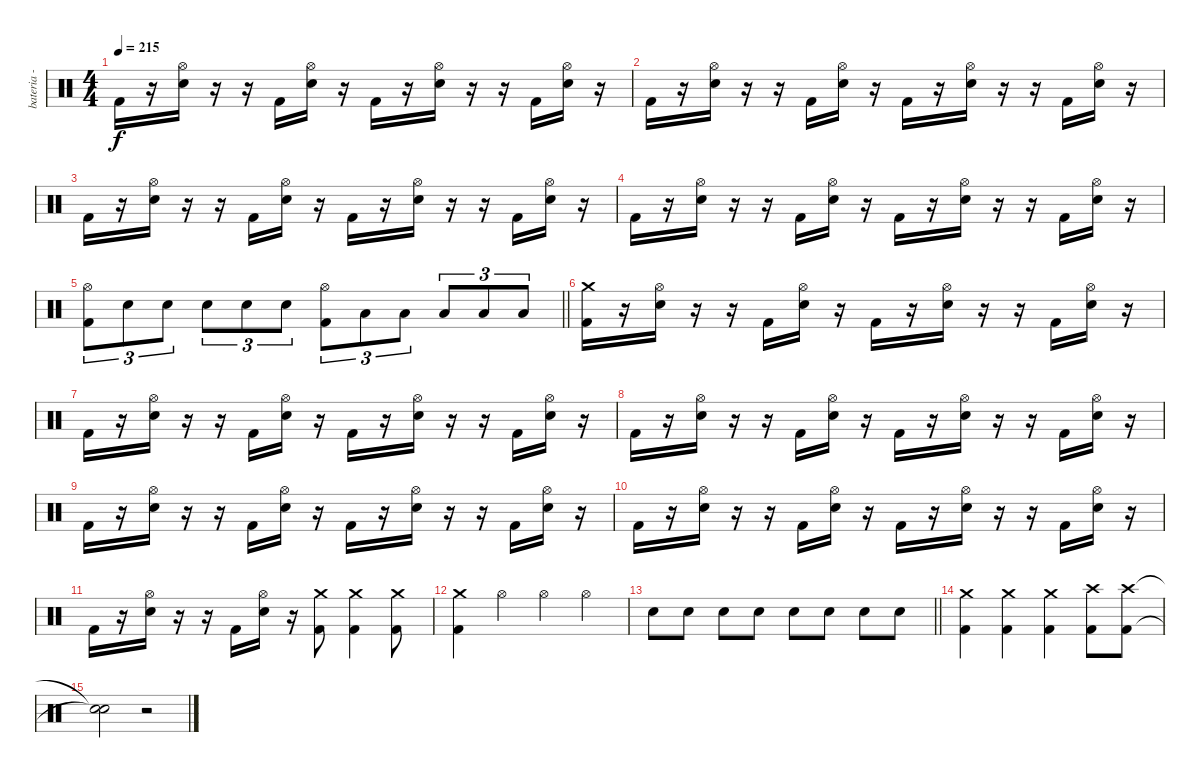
\track ("bateria - drums" "bateria - ") {instrument percussion}
\staff {score}
\articulation defaults
\ts (4 4)
\tempo 215
\clef neutral
\ks c "Kick (hit) 2".16{dy f}
r.16 ("Hi-Hat (open)" "Electric Snare (hit)").16 r.16 r.16 "Kick (hit) 2".16 ("Hi-Hat (open)" "Electric Snare (hit)").16 r.16 "Kick (hit) 2".16 r.16 ("Hi-Hat (open)" "Electric Snare (hit)").16 r.16 r.16 "Kick (hit) 2".16 ("Hi-Hat (open)" "Electric Snare (hit)").16 r.16 |
"Kick (hit) 2".16 r.16 ("Hi-Hat (open)" "Electric Snare (hit)").16 r.16 r.16 "Kick (hit) 2".16 ("Hi-Hat (open)" "Electric Snare (hit)").16 r.16 "Kick (hit) 2".16 r.16 ("Hi-Hat (open)" "Electric Snare (hit)").16 r.16 r.16 "Kick (hit) 2".16 ("Hi-Hat (open)" "Electric Snare (hit)").16 r.16 |
"Kick (hit) 2".16 r.16 ("Hi-Hat (open)" "Electric Snare (hit)").16 r.16 r.16 "Kick (hit) 2".16 ("Hi-Hat (open)" "Electric Snare (hit)").16 r.16 "Kick (hit) 2".16 r.16 ("Hi-Hat (open)" "Electric Snare (hit)").16 r.16 r.16 "Kick (hit) 2".16 ("Hi-Hat (open)" "Electric Snare (hit)").16 r.16 |
"Kick (hit) 2".16 r.16 ("Hi-Hat (open)" "Electric Snare (hit)").16 r.16 r.16 "Kick (hit) 2".16 ("Hi-Hat (open)" "Electric Snare (hit)").16 r.16 "Kick (hit) 2".16 r.16 ("Hi-Hat (open)" "Electric Snare (hit)").16 r.16 r.16 "Kick (hit) 2".16 ("Hi-Hat (open)" "Electric Snare (hit)").16 r.16 |
\barLineRight lightlight
("Hi-Hat (open)" "Kick (hit) 2").8{tu (3 2)} "Electric Snare (hit)".8{tu (3 2)} "Electric Snare (hit)".8{tu (3 2)} "Electric Snare (hit)".8{tu (3 2)} "Electric Snare (hit)".8{tu (3 2)} "Electric Snare (hit)".8{tu (3 2)} ("Hi-Hat (open)" "Kick (hit) 2").8{tu (3 2)} "Low Floor Tom (hit)".8{tu (3 2)} "Low Floor Tom (hit)".8{tu (3 2)} "Low Floor Tom (hit)".8{tu (3 2)} "Low Floor Tom (hit)".8{tu (3 2)} "Low Floor Tom (hit)".8{tu (3 2)} |
("Crash medium (hit)" "Kick (hit) 2").16 r.16 ("Hi-Hat (open)" "Electric Snare (hit)").16 r.16 r.16 "Kick (hit) 2".16 ("Hi-Hat (open)" "Electric Snare (hit)").16 r.16 "Kick (hit) 2".16 r.16 ("Hi-Hat (open)" "Electric Snare (hit)").16 r.16 r.16 "Kick (hit) 2".16 ("Hi-Hat (open)" "Electric Snare (hit)").16 r.16 |
"Kick (hit) 2".16 r.16 ("Hi-Hat (open)" "Electric Snare (hit)").16 r.16 r.16 "Kick (hit) 2".16 ("Hi-Hat (open)" "Electric Snare (hit)").16 r.16 "Kick (hit) 2".16 r.16 ("Hi-Hat (open)" "Electric Snare (hit)").16 r.16 r.16 "Kick (hit) 2".16 ("Hi-Hat (open)" "Electric Snare (hit)").16 r.16 |
"Kick (hit) 2".16 r.16 ("Hi-Hat (open)" "Electric Snare (hit)").16 r.16 r.16 "Kick (hit) 2".16 ("Hi-Hat (open)" "Electric Snare (hit)").16 r.16 "Kick (hit) 2".16 r.16 ("Hi-Hat (open)" "Electric Snare (hit)").16 r.16 r.16 "Kick (hit) 2".16 ("Hi-Hat (open)" "Electric Snare (hit)").16 r.16 |
"Kick (hit) 2".16 r.16 ("Hi-Hat (open)" "Electric Snare (hit)").16 r.16 r.16 "Kick (hit) 2".16 ("Hi-Hat (open)" "Electric Snare (hit)").16 r.16 "Kick (hit) 2".16 r.16 ("Hi-Hat (open)" "Electric Snare (hit)").16 r.16 r.16 "Kick (hit) 2".16 ("Hi-Hat (open)" "Electric Snare (hit)").16 r.16 |
"Kick (hit) 2".16 r.16 ("Hi-Hat (open)" "Electric Snare (hit)").16 r.16 r.16 "Kick (hit) 2".16 ("Hi-Hat (open)" "Electric Snare (hit)").16 r.16 "Kick (hit) 2".16 r.16 ("Hi-Hat (open)" "Electric Snare (hit)").16 r.16 r.16 "Kick (hit) 2".16 ("Hi-Hat (open)" "Electric Snare (hit)").16 r.16 |
"Kick (hit) 2".16 r.16 ("Hi-Hat (open)" "Electric Snare (hit)").16 r.16 r.16 "Kick (hit) 2".16 ("Hi-Hat (open)" "Electric Snare (hit)").16 r.16 ("Crash medium (hit)" "Kick (hit) 2").8 ("Crash medium (hit)" "Kick (hit) 2").4 ("Crash medium (hit)" "Kick (hit) 2").8 |
("Crash medium (hit)" "Kick (hit) 2").4 "Hi-Hat (open)".4 "Hi-Hat (open)".4 "Hi-Hat (open)".4 |
\barLineRight lightlight "Electric Snare (hit)".8 "Electric Snare (hit)".8 "Electric Snare (hit)".8 "Electric Snare (hit)".8 "Electric Snare (hit)".8 "Electric Snare (hit)".8 "Electric Snare (hit)".8 "Electric Snare (hit)".8
|
("Crash medium (hit)" "Kick (hit) 2").4 ("Crash medium (hit)" "Kick (hit) 2").4 ("Crash medium (hit)" "Kick (hit) 2").4 ("Crash high (hit)" "Kick (hit) 2").8 ("Crash high (hit)" "Kick (hit) 2").8 |
("Snare (hit)"{t} "Snare (hit)"{t}).2 r.2
